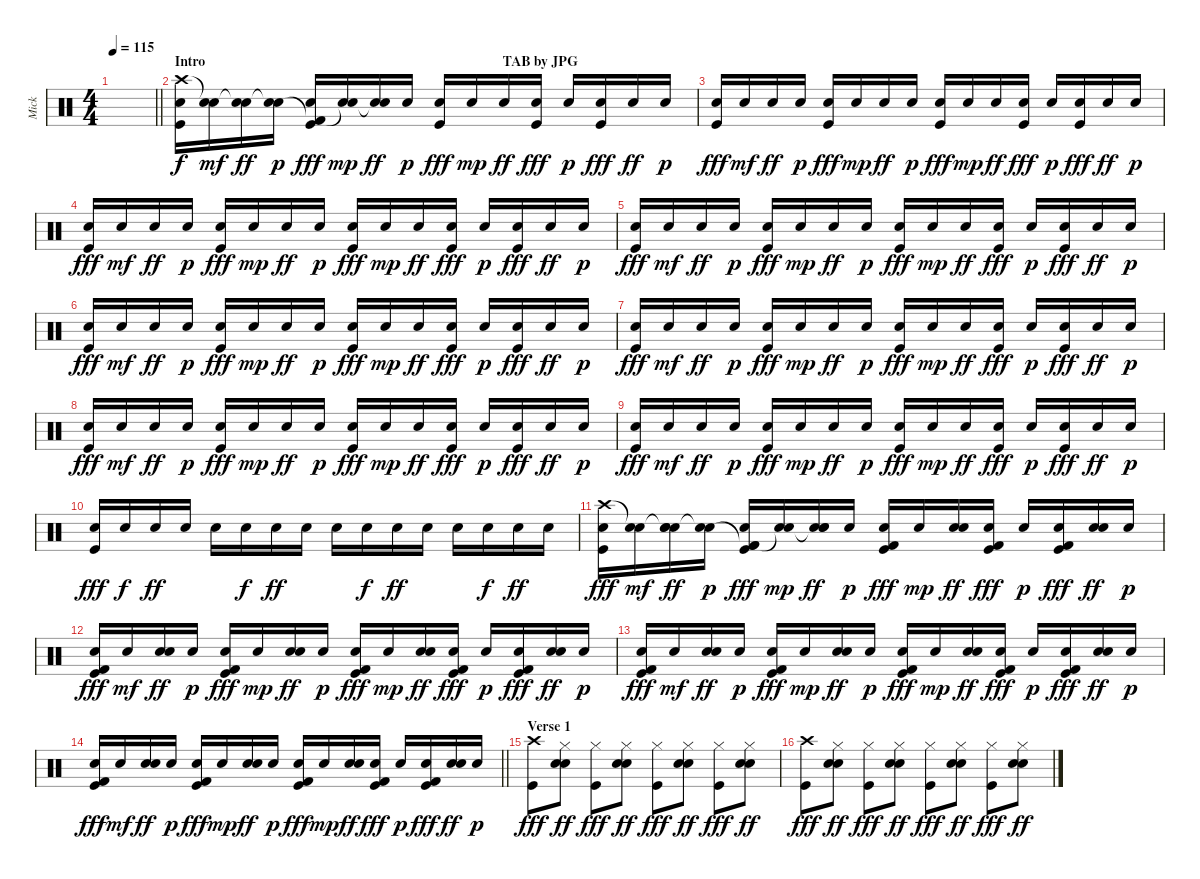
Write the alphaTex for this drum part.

\track ("Mick" "Mick") {instrument percussion}
\staff {score}
\articulation defaults
\ts (4 4)
\tempo 115
\clef neutral
\barLineRight lightlight
\ks c
|
\section ("" "Intro                                                                                     TAB by JPG")
("Crash high (hit)" "Electric Snare (hit)" "Kick (hit)").16{volume 15} ("Snare (hit)"{t} "Electric Snare (hit)").16{dy mf} ("Snare (hit)"{t} "Electric Snare (hit)").16{dy ff} ("Snare (hit)"{t} "Electric Snare (hit)").16{dy p} ("Kick (hit) 2"{t} "Electric Snare (hit)" "Kick (hit)").16{dy fff} ("Snare (hit)"{t} "Electric Snare (hit)").16{dy mp} ("Snare (hit)"{t} "Electric Snare (hit)").16{dy ff} "Electric Snare (hit)".16{dy p} ("Electric Snare (hit)" "Kick (hit)").16{dy fff} "Electric Snare (hit)".16{dy mp} "Electric Snare (hit)".16{dy ff} ("Electric Snare (hit)" "Kick (hit)").16{dy fff} "Electric Snare (hit)".16{dy p} ("Electric Snare (hit)" "Kick (hit)").16{dy fff} "Electric Snare (hit)".16{dy ff} "Electric Snare (hit)".16{dy p} |
("Electric Snare (hit)" "Kick (hit)").16{dy fff} "Electric Snare (hit)".16{dy mf} "Electric Snare (hit)".16{dy ff} "Electric Snare (hit)".16{dy p} ("Electric Snare (hit)" "Kick (hit)").16{dy fff} "Electric Snare (hit)".16{dy mp} "Electric Snare (hit)".16{dy ff} "Electric Snare (hit)".16{dy p} ("Electric Snare (hit)" "Kick (hit)").16{dy fff} "Electric Snare (hit)".16{dy mp} "Electric Snare (hit)".16{dy ff} ("Electric Snare (hit)" "Kick (hit)").16{dy fff} "Electric Snare (hit)".16{dy p} ("Electric Snare (hit)" "Kick (hit)").16{dy fff} "Electric Snare (hit)".16{dy ff} "Electric Snare (hit)".16{dy p} |
("Electric Snare (hit)" "Kick (hit)").16{dy fff} "Electric Snare (hit)".16{dy mf} "Electric Snare (hit)".16{dy ff} "Electric Snare (hit)".16{dy p} ("Electric Snare (hit)" "Kick (hit)").16{dy fff} "Electric Snare (hit)".16{dy mp} "Electric Snare (hit)".16{dy ff} "Electric Snare (hit)".16{dy p} ("Electric Snare (hit)" "Kick (hit)").16{dy fff} "Electric Snare (hit)".16{dy mp} "Electric Snare (hit)".16{dy ff} ("Electric Snare (hit)" "Kick (hit)").16{dy fff} "Electric Snare (hit)".16{dy p} ("Electric Snare (hit)" "Kick (hit)").16{dy fff} "Electric Snare (hit)".16{dy ff} "Electric Snare (hit)".16{dy p} |
("Electric Snare (hit)" "Kick (hit)").16{dy fff} "Electric Snare (hit)".16{dy mf} "Electric Snare (hit)".16{dy ff} "Electric Snare (hit)".16{dy p} ("Electric Snare (hit)" "Kick (hit)").16{dy fff} "Electric Snare (hit)".16{dy mp} "Electric Snare (hit)".16{dy ff} "Electric Snare (hit)".16{dy p} ("Electric Snare (hit)" "Kick (hit)").16{dy fff} "Electric Snare (hit)".16{dy mp} "Electric Snare (hit)".16{dy ff} ("Electric Snare (hit)" "Kick (hit)").16{dy fff} "Electric Snare (hit)".16{dy p} ("Electric Snare (hit)" "Kick (hit)").16{dy fff} "Electric Snare (hit)".16{dy ff} "Electric Snare (hit)".16{dy p} |
("Electric Snare (hit)" "Kick (hit)").16{dy fff} "Electric Snare (hit)".16{dy mf} "Electric Snare (hit)".16{dy ff} "Electric Snare (hit)".16{dy p} ("Electric Snare (hit)" "Kick (hit)").16{dy fff} "Electric Snare (hit)".16{dy mp} "Electric Snare (hit)".16{dy ff} "Electric Snare (hit)".16{dy p} ("Electric Snare (hit)" "Kick (hit)").16{dy fff} "Electric Snare (hit)".16{dy mp} "Electric Snare (hit)".16{dy ff} ("Electric Snare (hit)" "Kick (hit)").16{dy fff} "Electric Snare (hit)".16{dy p} ("Electric Snare (hit)" "Kick (hit)").16{dy fff} "Electric Snare (hit)".16{dy ff} "Electric Snare (hit)".16{dy p} |
("Electric Snare (hit)" "Kick (hit)").16{dy fff} "Electric Snare (hit)".16{dy mf} "Electric Snare (hit)".16{dy ff} "Electric Snare (hit)".16{dy p} ("Electric Snare (hit)" "Kick (hit)").16{dy fff} "Electric Snare (hit)".16{dy mp} "Electric Snare (hit)".16{dy ff} "Electric Snare (hit)".16{dy p} ("Electric Snare (hit)" "Kick (hit)").16{dy fff} "Electric Snare (hit)".16{dy mp} "Electric Snare (hit)".16{dy ff} ("Electric Snare (hit)" "Kick (hit)").16{dy fff} "Electric Snare (hit)".16{dy p} ("Electric Snare (hit)" "Kick (hit)").16{dy fff} "Electric Snare (hit)".16{dy ff} "Electric Snare (hit)".16{dy p} |
("Electric Snare (hit)" "Kick (hit)").16{dy fff} "Electric Snare (hit)".16{dy mf} "Electric Snare (hit)".16{dy ff} "Electric Snare (hit)".16{dy p} ("Electric Snare (hit)" "Kick (hit)").16{dy fff} "Electric Snare (hit)".16{dy mp} "Electric Snare (hit)".16{dy ff} "Electric Snare (hit)".16{dy p} ("Electric Snare (hit)" "Kick (hit)").16{dy fff} "Electric Snare (hit)".16{dy mp} "Electric Snare (hit)".16{dy ff} ("Electric Snare (hit)" "Kick (hit)").16{dy fff} "Electric Snare (hit)".16{dy p} ("Electric Snare (hit)" "Kick (hit)").16{dy fff} "Electric Snare (hit)".16{dy ff} "Electric Snare (hit)".16{dy p} |
("Electric Snare (hit)" "Kick (hit)").16{dy fff} "Electric Snare (hit)".16{dy mf} "Electric Snare (hit)".16{dy ff} "Electric Snare (hit)".16{dy p} ("Electric Snare (hit)" "Kick (hit)").16{dy fff} "Electric Snare (hit)".16{dy mp} "Electric Snare (hit)".16{dy ff} "Electric Snare (hit)".16{dy p} ("Electric Snare (hit)" "Kick (hit)").16{dy fff} "Electric Snare (hit)".16{dy mp} "Electric Snare (hit)".16{dy ff} ("Electric Snare (hit)" "Kick (hit)").16{dy fff} "Electric Snare (hit)".16{dy p} ("Electric Snare (hit)" "Kick (hit)").16{dy fff} "Electric Snare (hit)".16{dy ff} "Electric Snare (hit)".16{dy p} |
("Electric Snare (hit)" "Kick (hit)").16{dy fff} "Electric Snare (hit)".16{dy f} "Electric Snare (hit)".16{dy ff} "Electric Snare (hit)".16 "Electric Snare (hit)".16 "Electric Snare (hit)".16{dy f} "Electric Snare (hit)".16{dy ff} "Electric Snare (hit)".16 "Electric Snare (hit)".16 "Electric Snare (hit)".16{dy f} "Electric Snare (hit)".16{dy ff} "Electric Snare (hit)".16 "Electric Snare (hit)".16 "Electric Snare (hit)".16{dy f} "Electric Snare (hit)".16{dy ff} "Electric Snare (hit)".16 |
("Crash high (hit)" "Electric Snare (hit)" "Kick (hit)").16{dy fff volume 13} ("Snare (hit)"{t} "Electric Snare (hit)").16{dy mf} ("Hand Clap (hit)" "Snare (hit)"{t} "Electric Snare (hit)").16{dy ff} ("Snare (hit)"{t} "Electric Snare (hit)").16{dy p} ("Kick (hit) 2" "Kick (hit) 2"{t} "Electric Snare (hit)" "Kick (hit)").16{dy fff} ("Snare (hit)"{t} "Electric Snare (hit)").16{dy mp} ("Hand Clap (hit)" "Snare (hit)"{t} "Electric Snare (hit)").16{dy ff} "Electric Snare (hit)".16{dy p} ("Kick (hit) 2" "Electric Snare (hit)" "Kick (hit)").16{dy fff} "Electric Snare (hit)".16{dy mp} ("Hand Clap (hit)" "Electric Snare (hit)").16{dy ff} ("Kick (hit) 2" "Electric Snare (hit)" "Kick (hit)").16{dy fff} "Electric Snare (hit)".16{dy p} ("Kick (hit) 2" "Electric Snare (hit)" "Kick (hit)").16{dy fff} ("Hand Clap (hit)" "Electric Snare (hit)").16{dy ff} "Electric Snare (hit)".16{dy p} |
("Kick (hit) 2" "Electric Snare (hit)" "Kick (hit)").16{dy fff} "Electric Snare (hit)".16{dy mf} ("Hand Clap (hit)" "Electric Snare (hit)").16{dy ff} "Electric Snare (hit)".16{dy p} ("Kick (hit) 2" "Electric Snare (hit)" "Kick (hit)").16{dy fff} "Electric Snare (hit)".16{dy mp} ("Hand Clap (hit)" "Electric Snare (hit)").16{dy ff} "Electric Snare (hit)".16{dy p} ("Kick (hit) 2" "Electric Snare (hit)" "Kick (hit)").16{dy fff} "Electric Snare (hit)".16{dy mp} ("Hand Clap (hit)" "Electric Snare (hit)").16{dy ff} ("Kick (hit) 2" "Electric Snare (hit)" "Kick (hit)").16{dy fff} "Electric Snare (hit)".16{dy p} ("Kick (hit) 2" "Electric Snare (hit)" "Kick (hit)").16{dy fff} ("Hand Clap (hit)" "Electric Snare (hit)").16{dy ff} "Electric Snare (hit)".16{dy p} |
("Kick (hit) 2" "Electric Snare (hit)" "Kick (hit)").16{dy fff} "Electric Snare (hit)".16{dy mf} ("Hand Clap (hit)" "Electric Snare (hit)").16{dy ff} "Electric Snare (hit)".16{dy p} ("Kick (hit) 2" "Electric Snare (hit)" "Kick (hit)").16{dy fff} "Electric Snare (hit)".16{dy mp} ("Hand Clap (hit)" "Electric Snare (hit)").16{dy ff} "Electric Snare (hit)".16{dy p} ("Kick (hit) 2" "Electric Snare (hit)" "Kick (hit)").16{dy fff} "Electric Snare (hit)".16{dy mp} ("Hand Clap (hit)" "Electric Snare (hit)").16{dy ff} ("Kick (hit) 2" "Electric Snare (hit)" "Kick (hit)").16{dy fff} "Electric Snare (hit)".16{dy p} ("Kick (hit) 2" "Electric Snare (hit)" "Kick (hit)").16{dy fff} ("Hand Clap (hit)" "Electric Snare (hit)").16{dy ff} "Electric Snare (hit)".16{dy p} |
\barLineRight lightlight
("Kick (hit) 2" "Electric Snare (hit)" "Kick (hit)").16{dy fff} "Electric Snare (hit)".16{dy mf} ("Hand Clap (hit)" "Electric Snare (hit)").16{dy ff} "Electric Snare (hit)".16{dy p} ("Kick (hit) 2" "Electric Snare (hit)" "Kick (hit)").16{dy fff} "Electric Snare (hit)".16{dy mp} ("Hand Clap (hit)" "Electric Snare (hit)").16{dy ff} "Electric Snare (hit)".16{dy p} ("Kick (hit) 2" "Electric Snare (hit)" "Kick (hit)").16{dy fff} "Electric Snare (hit)".16{dy mp} ("Hand Clap (hit)" "Electric Snare (hit)").16{dy ff} ("Kick (hit) 2" "Electric Snare (hit)" "Kick (hit)").16{dy fff} "Electric Snare (hit)".16{dy p} ("Kick (hit) 2" "Electric Snare (hit)" "Kick (hit)").16{dy fff} ("Hand Clap (hit)" "Electric Snare (hit)").16{dy ff} "Electric Snare (hit)".16{dy p} |
\section ("" "Verse 1")
("Crash high (hit)" "Kick (hit)").8{dy fff} ("Hand Clap (hit)" "Hi-Hat (closed)" "Electric Snare (hit)").8{dy ff} ("Hi-Hat (closed)" "Kick (hit)").8{dy fff} ("Hand Clap (hit)" "Hi-Hat (closed)" "Electric Snare (hit)").8{dy ff} ("Hi-Hat (closed)" "Kick (hit)").8{dy fff} ("Hand Clap (hit)" "Hi-Hat (closed)" "Electric Snare (hit)").8{dy ff} ("Hi-Hat (closed)" "Kick (hit)").8{dy fff} ("Hand Clap (hit)" "Hi-Hat (closed)" "Electric Snare (hit)").8{dy ff} |
("Crash high (hit)" "Kick (hit)").8{dy fff} ("Hand Clap (hit)" "Hi-Hat (closed)" "Electric Snare (hit)").8{dy ff} ("Hi-Hat (closed)" "Kick (hit)").8{dy fff} ("Hand Clap (hit)" "Hi-Hat (closed)" "Electric Snare (hit)").8{dy ff} ("Hi-Hat (closed)" "Kick (hit)").8{dy fff} ("Hand Clap (hit)" "Hi-Hat (closed)" "Electric Snare (hit)").8{dy ff} ("Hi-Hat (closed)" "Kick (hit)").8{dy fff} ("Hand Clap (hit)" "Hi-Hat (closed)" "Electric Snare (hit)").8{dy ff}
